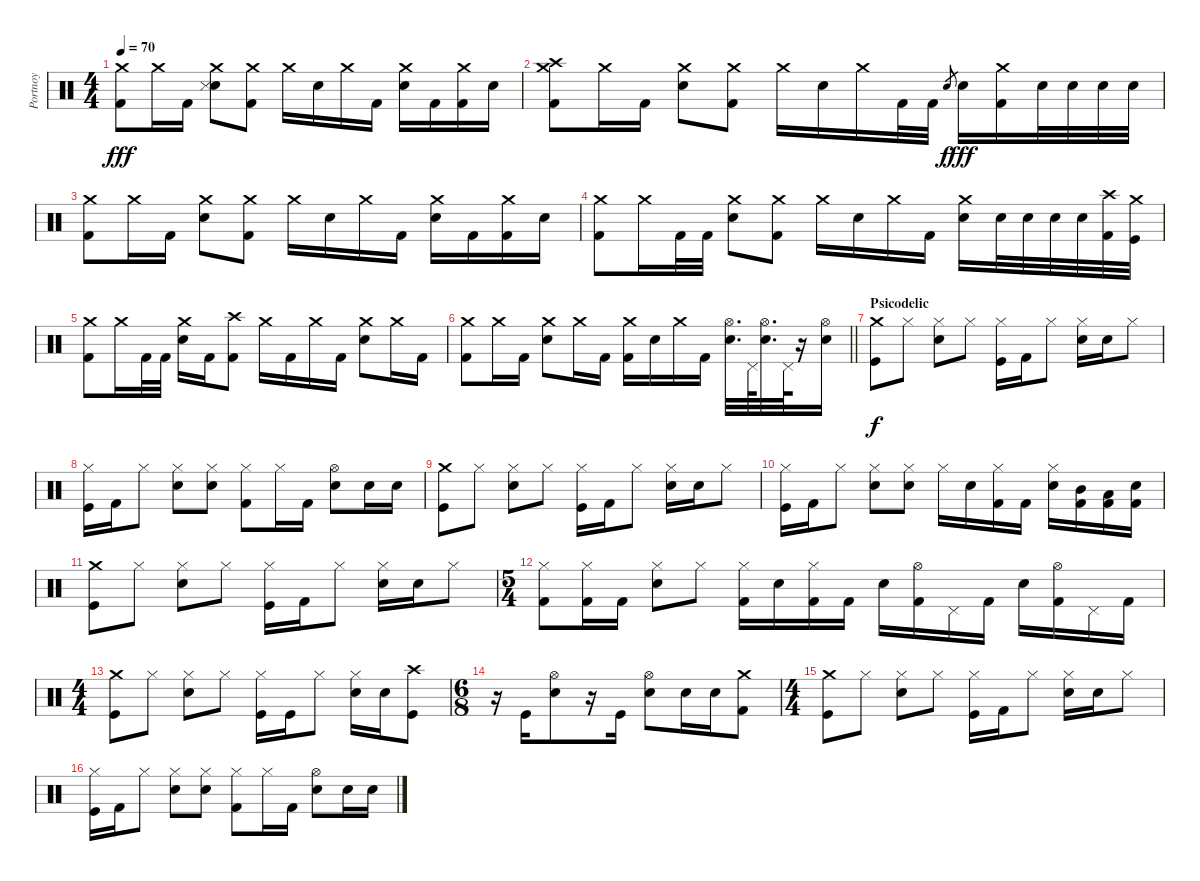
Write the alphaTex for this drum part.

\track ("Portnoy" "Portnoy") {instrument percussion}
\staff {score}
\articulation defaults
\ts (4 4)
\tempo 70
\clef neutral
\ks c
("Crash medium (hit)" "Kick (hit) 2").8{dy fff} "Crash medium (hit)".16 "Kick (hit) 2".16 ("Crash medium (hit)" "Snare (hit) 2" "Snare (side stick) 3").8 ("Crash medium (hit)" "Kick (hit) 2").8 "Crash medium (hit)".16 "Snare (hit) 2".16 "Crash medium (hit)".16 "Kick (hit) 2".16 ("Crash medium (hit)" "Snare (hit) 2").16 "Kick (hit) 2".16 ("Kick (hit) 2" "Crash medium (hit)").16 "Snare (hit) 2".16 |
("Crash medium (hit)" "Kick (hit) 2" "Crash high (hit)").8 "Crash medium (hit)".16 "Kick (hit) 2".16 ("Crash medium (hit)" "Snare (hit) 2").8 ("Crash medium (hit)" "Kick (hit) 2").8 "Crash medium (hit)".16 "Snare (hit) 2".16 "Crash medium (hit)".16 "Kick (hit) 2".32 "Kick (hit) 2".32 "Snare (hit) 2".8{gr dy f} "Snare (hit) 2".16{dy fff} ("Crash medium (hit)" "Kick (hit) 2").16 "Snare (hit) 2".32 "Snare (hit) 2".32 "Snare (hit) 2".32 "Snare (hit) 2".32 |
("Crash medium (hit)" "Kick (hit) 2").8 "Crash medium (hit)".16 "Kick (hit) 2".16 ("Crash medium (hit)" "Snare (hit) 2").8 ("Crash medium (hit)" "Kick (hit) 2").8 "Crash medium (hit)".16 "Snare (hit) 2".16 "Crash medium (hit)".16 "Kick (hit) 2".16 ("Crash medium (hit)" "Snare (hit) 2").16 "Kick (hit) 2".16 ("Kick (hit) 2" "Crash medium (hit)").16 "Snare (hit) 2".16 |
("Crash medium (hit)" "Kick (hit) 2").8 "Crash medium (hit)".16 "Kick (hit) 2".32 "Kick (hit) 2".32 ("Crash medium (hit)" "Snare (hit) 2").8 ("Crash medium (hit)" "Kick (hit) 2").8 "Crash medium (hit)".16 "Snare (hit) 2".16 "Crash medium (hit)".16 "Kick (hit) 2".16 ("Snare (hit) 2" "Crash medium (hit)").16 "Snare (hit) 2".32 "Snare (hit) 2".32 "Snare (hit) 2".32 "Snare (hit) 2".32 ("Crash high (hit)" "Kick (hit) 2").32 ("Crash medium (hit)" "Kick (hit)").32 |
("Crash medium (hit)" "Kick (hit) 2").8 "Crash medium (hit)".16 "Kick (hit) 2".32 "Kick (hit) 2".32 ("Crash medium (hit)" "Snare (hit) 2").16 "Kick (hit) 2".16 ("Crash high (hit)" "Kick (hit) 2").8 "Crash medium (hit)".16 "Kick (hit) 2".16 "Crash medium (hit)".16 "Kick (hit) 2".16 ("Crash medium (hit)" "Snare (hit) 2").8 "Crash medium (hit)".16 "Kick (hit) 2".16 |
\barLineRight lightlight
("Crash medium (hit)" "Kick (hit) 2").8 "Crash medium (hit)".16 "Kick (hit) 2".16 ("Crash medium (hit)" "Snare (hit) 2").8 "Crash medium (hit)".16 "Kick (hit) 2".16 ("Crash medium (hit)" "Kick (hit) 2").16 "Snare (hit) 2".16 "Crash medium (hit)".16 "Kick (hit) 2".16 ("Hi-Hat (open)" "Snare (hit) 2").32{d} "Pedal Hi-Hat (hit)".64 ("Hi-Hat (open)" "Snare (hit) 2").32{d} "Pedal Hi-Hat (hit)".64 r.16 ("Hi-Hat (open)" "Snare (hit) 2").16 |
\section ("" "Psicodelic")
("Crash medium (hit)" "Kick (hit)").8{dy f volume 15} "Hi-Hat (closed)".8 ("Electric Snare (hit)" "Hi-Hat (closed)").8 "Hi-Hat (closed)".8 ("Kick (hit)" "Hi-Hat (closed)").16 "Kick (hit) 2".16 "Hi-Hat (closed)".8 ("Hi-Hat (closed)" "Electric Snare (hit)").16 "Electric Snare (hit)".16 "Hi-Hat (closed)".8 |
("Kick (hit)" "Hi-Hat (closed)").16 "Kick (hit) 2".16 "Hi-Hat (closed)".8 ("Hi-Hat (closed)" "Electric Snare (hit)").8 ("Hi-Hat (closed)" "Electric Snare (hit)").8 ("Kick (hit) 2" "Hi-Hat (closed)").8 "Hi-Hat (closed)".16 "Kick (hit) 2".16 ("Hi-Hat (open)" "Electric Snare (hit)").8 "Electric Snare (hit)".16 "Electric Snare (hit)".16 |
("Crash medium (hit)" "Kick (hit)").8 "Hi-Hat (closed)".8 ("Electric Snare (hit)" "Hi-Hat (closed)").8 "Hi-Hat (closed)".8 ("Kick (hit)" "Hi-Hat (closed)").16 "Kick (hit) 2".16 "Hi-Hat (closed)".8 ("Hi-Hat (closed)" "Electric Snare (hit)").16 "Electric Snare (hit)".16 "Hi-Hat (closed)".8 |
("Kick (hit)" "Hi-Hat (closed)").16 "Kick (hit) 2".16 "Hi-Hat (closed)".8 ("Hi-Hat (closed)" "Electric Snare (hit)").8 ("Hi-Hat (closed)" "Electric Snare (hit)").8 "Hi-Hat (closed)".16 "Electric Snare (hit)".16 ("Hi-Hat (closed)" "Kick (hit) 2").16 "Kick (hit) 2".16 ("Hi-Hat (closed)" "Electric Snare (hit)").16 ("Kick (hit) 2" "Mid Tom (hit)").16 ("Low Tom (hit)" "Kick (hit) 2").16 ("Electric Snare (hit)" "Kick (hit) 2").16 |
("Crash medium (hit)" "Kick (hit)").8 "Hi-Hat (closed)".8 ("Electric Snare (hit)" "Hi-Hat (closed)").8 "Hi-Hat (closed)".8 ("Kick (hit)" "Hi-Hat (closed)").16 "Kick (hit) 2".16 "Hi-Hat (closed)".8 ("Hi-Hat (closed)" "Electric Snare (hit)").16 "Electric Snare (hit)".16 "Hi-Hat (closed)".8 |
\ts (5 4)
("Hi-Hat (closed)" "Kick (hit) 2").8 ("Kick (hit) 2" "Hi-Hat (closed)").16 "Kick (hit) 2".16 ("Electric Snare (hit)" "Hi-Hat (closed)").8 "Hi-Hat (closed)".8 ("Hi-Hat (closed)" "Kick (hit) 2").16 "Electric Snare (hit)".16 ("Hi-Hat (closed)" "Kick (hit) 2").16 "Kick (hit) 2".16 "Electric Snare (hit)".16 ("Kick (hit) 2" "Hi-Hat (open)").16 "Pedal Hi-Hat (hit)".16 "Kick (hit) 2".16 "Electric Snare (hit)".16 ("Kick (hit) 2" "Hi-Hat (open)").16 "Pedal Hi-Hat (hit)".16 "Kick (hit) 2".16 |
\ts (4 4)
("Crash medium (hit)" "Kick (hit)").8 "Hi-Hat (closed)".8 ("Electric Snare (hit)" "Hi-Hat (closed)").8 "Hi-Hat (closed)".8 ("Kick (hit)" "Hi-Hat (closed)").16 "Kick (hit)".16 "Hi-Hat (closed)".8 ("Hi-Hat (closed)" "Electric Snare (hit)").16 "Electric Snare (hit)".16 ("Crash high (hit)" "Kick (hit)").8 |
\ts (6 8)
r.16 "Kick (hit)".16 ("Hi-Hat (open)" "Electric Snare (hit)").8 r.16 "Kick (hit)".16 ("Hi-Hat (open)" "Electric Snare (hit)").8 "Electric Snare (hit)".16 "Electric Snare (hit)".16 ("Crash medium (hit)" "Kick (hit) 2").8 |
\ts (4 4)
("Crash medium (hit)" "Kick (hit)").8{volume 15} "Hi-Hat (closed)".8 ("Electric Snare (hit)" "Hi-Hat (closed)").8 "Hi-Hat (closed)".8 ("Kick (hit)" "Hi-Hat (closed)").16 "Kick (hit) 2".16 "Hi-Hat (closed)".8 ("Hi-Hat (closed)" "Electric Snare (hit)").16 "Electric Snare (hit)".16 "Hi-Hat (closed)".8 |
("Kick (hit)" "Hi-Hat (closed)").16 "Kick (hit) 2".16 "Hi-Hat (closed)".8 ("Hi-Hat (closed)" "Electric Snare (hit)").8 ("Hi-Hat (closed)" "Electric Snare (hit)").8 ("Kick (hit) 2" "Hi-Hat (closed)").8 "Hi-Hat (closed)".16 "Kick (hit) 2".16 ("Hi-Hat (open)" "Electric Snare (hit)").8 "Electric Snare (hit)".16 "Electric Snare (hit)".16
